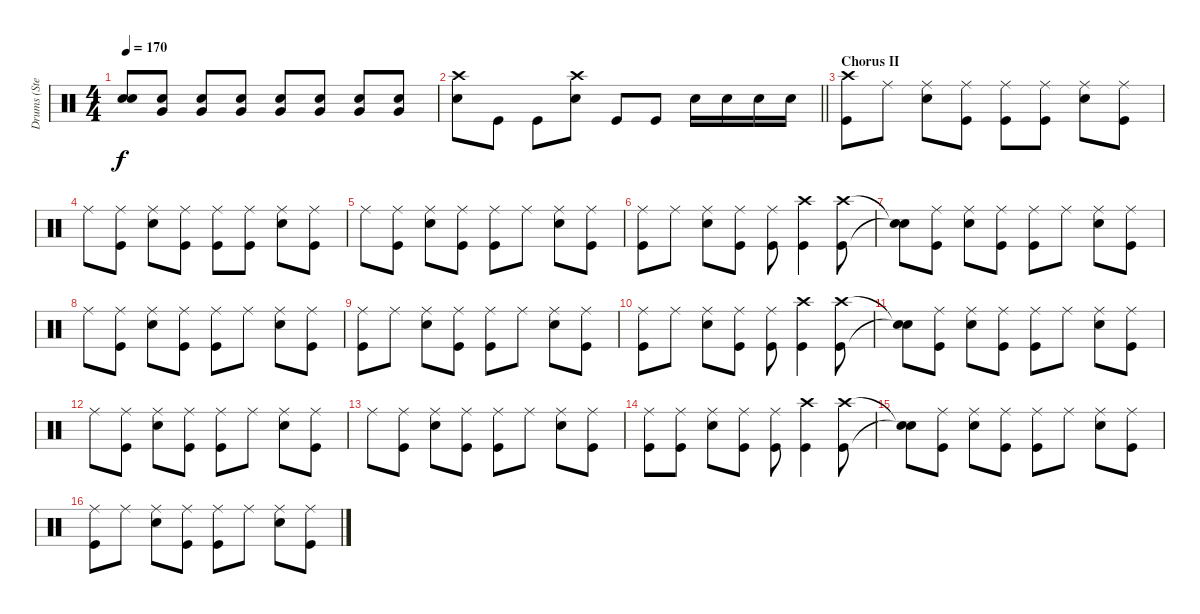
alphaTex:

\track ("Drums (Steven)" "Drums (Ste") {instrument percussion}
\staff {score}
\articulation defaults
\ts (4 4)
\tempo 170
\clef neutral
\ks c
("Snare (hit) 2" "Snare (hit) 2").8{dy f} ("Snare (hit) 2" "Very Low Tom (hit)").8 ("Snare (hit) 2" "Very Low Tom (hit)").8 ("Snare (hit) 2" "Very Low Tom (hit)").8 ("Snare (hit) 2" "Very Low Tom (hit)").8 ("Snare (hit) 2" "Very Low Tom (hit)").8 ("Snare (hit) 2" "Very Low Tom (hit)").8 ("Snare (hit) 2" "Very Low Tom (hit)").8 |
\barLineRight lightlight
("Crash high (hit)" "Snare (hit) 2").8 "Kick (hit)".8 "Kick (hit)".8 ("Crash high (hit)" "Snare (hit) 2").8 "Kick (hit)".8 "Kick (hit)".8 "Electric Snare (hit)".16 "Electric Snare (hit)".16 "Electric Snare (hit)".16 "Electric Snare (hit)".16 |
\section ("" "Chorus II")
("Crash high (hit)" "Kick (hit)").8 "Ride (middle)".8 ("Ride (middle)" "Snare (hit) 2").8 ("Ride (middle)" "Kick (hit)").8 ("Ride (middle)" "Kick (hit)").8 ("Ride (middle)" "Kick (hit)").8 ("Ride (middle)" "Snare (hit) 2").8 ("Ride (middle)" "Kick (hit)").8 |
"Ride (middle)".8 ("Ride (middle)" "Kick (hit)").8 ("Ride (middle)" "Snare (hit) 2").8 ("Ride (middle)" "Kick (hit)").8 ("Ride (middle)" "Kick (hit)").8 ("Ride (middle)" "Kick (hit)").8 ("Ride (middle)" "Snare (hit) 2").8 ("Ride (middle)" "Kick (hit)").8 |
"Ride (middle)".8 ("Ride (middle)" "Kick (hit)").8 ("Ride (middle)" "Snare (hit) 2").8 ("Ride (middle)" "Kick (hit)").8 ("Ride (middle)" "Kick (hit)").8 "Ride (middle)".8 ("Ride (middle)" "Snare (hit) 2").8 ("Ride (middle)" "Kick (hit)").8 |
("Ride (middle)" "Kick (hit)").8 "Ride (middle)".8 ("Ride (middle)" "Snare (hit) 2").8 ("Ride (middle)" "Kick (hit)").8 ("Ride (middle)" "Kick (hit)").8 ("Crash high (hit)" "Kick (hit)").4 ("Crash high (hit)" "Kick (hit)").8 |
("Snare (hit)"{t} "Snare (hit)"{t}).8 ("Ride (middle)" "Kick (hit)").8 ("Ride (middle)" "Snare (hit) 2").8 ("Ride (middle)" "Kick (hit)").8 ("Ride (middle)" "Kick (hit)").8 "Ride (middle)".8 ("Ride (middle)" "Snare (hit) 2").8 ("Ride (middle)" "Kick (hit)").8 |
"Ride (middle)".8 ("Ride (middle)" "Kick (hit)").8 ("Ride (middle)" "Snare (hit) 2").8 ("Ride (middle)" "Kick (hit)").8 ("Ride (middle)" "Kick (hit)").8 "Ride (middle)".8 ("Ride (middle)" "Snare (hit) 2").8 ("Ride (middle)" "Kick (hit)").8 |
("Ride (middle)" "Kick (hit)").8 "Ride (middle)".8 ("Ride (middle)" "Snare (hit) 2").8 ("Ride (middle)" "Kick (hit)").8 ("Ride (middle)" "Kick (hit)").8 "Ride (middle)".8 ("Ride (middle)" "Snare (hit) 2").8 ("Ride (middle)" "Kick (hit)").8 |
("Ride (middle)" "Kick (hit)").8 "Ride (middle)".8 ("Ride (middle)" "Snare (hit) 2").8 ("Ride (middle)" "Kick (hit)").8 ("Ride (middle)" "Kick (hit)").8 ("Crash high (hit)" "Kick (hit)").4 ("Crash high (hit)" "Kick (hit)").8 |
("Snare (hit)"{t} "Snare (hit)"{t}).8 ("Ride (middle)" "Kick (hit)").8 ("Ride (middle)" "Snare (hit) 2").8 ("Ride (middle)" "Kick (hit)").8 ("Ride (middle)" "Kick (hit)").8 "Ride (middle)".8 ("Ride (middle)" "Snare (hit) 2").8 ("Ride (middle)" "Kick (hit)").8 |
"Ride (middle)".8 ("Ride (middle)" "Kick (hit)").8 ("Ride (middle)" "Snare (hit) 2").8 ("Ride (middle)" "Kick (hit)").8 ("Ride (middle)" "Kick (hit)").8 "Ride (middle)".8 ("Ride (middle)" "Snare (hit) 2").8 ("Ride (middle)" "Kick (hit)").8 |
"Ride (middle)".8 ("Ride (middle)" "Kick (hit)").8 ("Ride (middle)" "Snare (hit) 2").8 ("Ride (middle)" "Kick (hit)").8 ("Ride (middle)" "Kick (hit)").8 "Ride (middle)".8 ("Ride (middle)" "Snare (hit) 2").8 ("Ride (middle)" "Kick (hit)").8 |
("Ride (middle)" "Kick (hit)").8 ("Ride (middle)" "Kick (hit)").8 ("Ride (middle)" "Snare (hit) 2").8 ("Ride (middle)" "Kick (hit)").8 ("Ride (middle)" "Kick (hit)").8 ("Crash high (hit)" "Kick (hit)").4 ("Crash high (hit)" "Kick (hit)").8 |
("Snare (hit)"{t} "Snare (hit)"{t}).8 ("Ride (middle)" "Kick (hit)").8 ("Ride (middle)" "Snare (hit) 2").8 ("Ride (middle)" "Kick (hit)").8 ("Ride (middle)" "Kick (hit)").8 "Ride (middle)".8 ("Ride (middle)" "Snare (hit) 2").8 ("Ride (middle)" "Kick (hit)").8 |
("Ride (middle)" "Kick (hit)").8 "Ride (middle)".8 ("Ride (middle)" "Snare (hit) 2").8 ("Ride (middle)" "Kick (hit)").8 ("Ride (middle)" "Kick (hit)").8 "Ride (middle)".8 ("Ride (middle)" "Snare (hit) 2").8 ("Ride (middle)" "Kick (hit)").8
